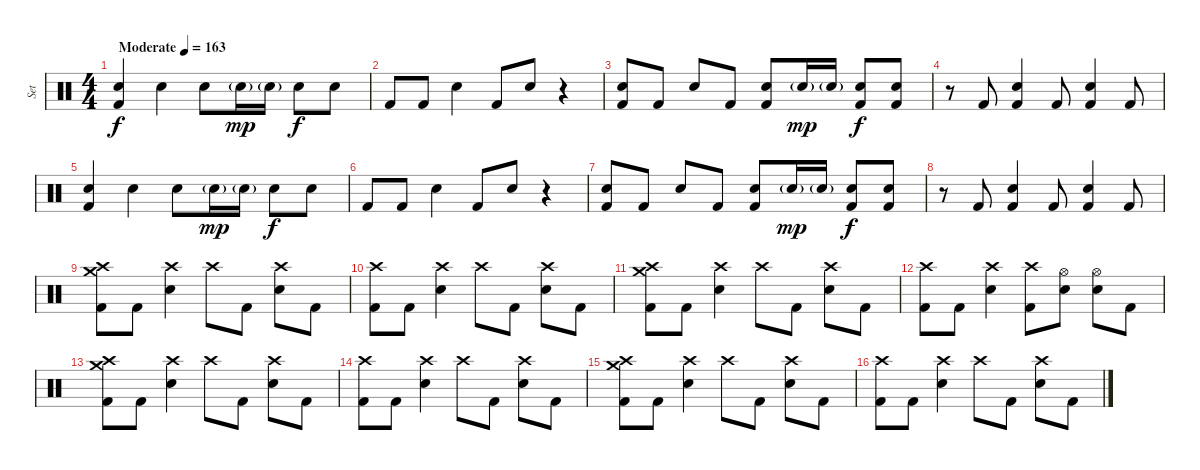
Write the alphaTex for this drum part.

\track ("Set" "Set") {instrument percussion}
\staff {score}
\articulation defaults
\ts (4 4)
\tempo (163 "Moderate")
\clef neutral
\ks c
("Electric Snare (hit)" "Kick (hit) 2").4{dy f} "Electric Snare (hit)".4 "Electric Snare (hit)".8 "Electric Snare (hit)"{g}.16{dy mp} "Electric Snare (hit)"{g}.16 "Electric Snare (hit)".8{dy f} "Electric Snare (hit)".8 |
"Kick (hit) 2".8 "Kick (hit) 2".8 "Electric Snare (hit)".4 "Kick (hit) 2".8 "Electric Snare (hit)".8 r.4 |
("Electric Snare (hit)" "Kick (hit) 2").8 "Kick (hit) 2".8 "Electric Snare (hit)".8 "Kick (hit) 2".8 ("Electric Snare (hit)" "Kick (hit) 2").8 "Electric Snare (hit)"{g}.16{dy mp} "Electric Snare (hit)"{g}.16 ("Electric Snare (hit)" "Kick (hit) 2").8{dy f} ("Electric Snare (hit)" "Kick (hit) 2").8 |
r.8 "Kick (hit) 2".8 ("Electric Snare (hit)" "Kick (hit) 2").4 "Kick (hit) 2".8 ("Electric Snare (hit)" "Kick (hit) 2").4 "Kick (hit) 2".8 |
("Electric Snare (hit)" "Kick (hit) 2").4 "Electric Snare (hit)".4 "Electric Snare (hit)".8 "Electric Snare (hit)"{g}.16{dy mp} "Electric Snare (hit)"{g}.16 "Electric Snare (hit)".8{dy f} "Electric Snare (hit)".8 |
"Kick (hit) 2".8 "Kick (hit) 2".8 "Electric Snare (hit)".4 "Kick (hit) 2".8 "Electric Snare (hit)".8 r.4 |
("Electric Snare (hit)" "Kick (hit) 2").8 "Kick (hit) 2".8 "Electric Snare (hit)".8 "Kick (hit) 2".8 ("Electric Snare (hit)" "Kick (hit) 2").8 "Electric Snare (hit)"{g}.16{dy mp} "Electric Snare (hit)"{g}.16 ("Electric Snare (hit)" "Kick (hit) 2").8{dy f} ("Electric Snare (hit)" "Kick (hit) 2").8 |
r.8 "Kick (hit) 2".8 ("Electric Snare (hit)" "Kick (hit) 2").4 "Kick (hit) 2".8 ("Electric Snare (hit)" "Kick (hit) 2").4 "Kick (hit) 2".8 |
("Crash high (hit)" "Crash medium (hit)" "Kick (hit) 2").8{volume 16} "Kick (hit) 2".8 ("Crash high (hit)" "Snare (hit) 2").4 "Crash high (hit)".8 "Kick (hit) 2".8 ("Crash high (hit)" "Snare (hit) 2").8 "Kick (hit) 2".8 |
("Crash high (hit)" "Kick (hit) 2").8 "Kick (hit) 2".8 ("Crash high (hit)" "Snare (hit) 2").4 "Crash high (hit)".8 "Kick (hit) 2".8 ("Crash high (hit)" "Snare (hit) 2").8 "Kick (hit) 2".8 |
("Crash high (hit)" "Crash medium (hit)" "Kick (hit) 2").8 "Kick (hit) 2".8 ("Crash high (hit)" "Snare (hit) 2").4 "Crash high (hit)".8 "Kick (hit) 2".8 ("Crash high (hit)" "Snare (hit) 2").8 "Kick (hit) 2".8 |
("Crash high (hit)" "Kick (hit) 2").8 "Kick (hit) 2".8 ("Crash high (hit)" "Snare (hit) 2").4 ("Crash high (hit)" "Kick (hit) 2").8 ("Hi-Hat (open)" "Snare (hit) 2").8 ("Hi-Hat (open)" "Snare (hit) 2").8 "Kick (hit) 2".8 |
("Crash high (hit)" "Crash medium (hit)" "Kick (hit) 2").8 "Kick (hit) 2".8 ("Crash high (hit)" "Snare (hit) 2").4 "Crash high (hit)".8 "Kick (hit) 2".8 ("Crash high (hit)" "Snare (hit) 2").8 "Kick (hit) 2".8 |
("Crash high (hit)" "Kick (hit) 2").8 "Kick (hit) 2".8 ("Crash high (hit)" "Snare (hit) 2").4 "Crash high (hit)".8 "Kick (hit) 2".8 ("Crash high (hit)" "Snare (hit) 2").8 "Kick (hit) 2".8 |
("Crash high (hit)" "Crash medium (hit)" "Kick (hit) 2").8 "Kick (hit) 2".8 ("Crash high (hit)" "Snare (hit) 2").4 "Crash high (hit)".8 "Kick (hit) 2".8 ("Crash high (hit)" "Snare (hit) 2").8 "Kick (hit) 2".8 |
("Crash high (hit)" "Kick (hit) 2").8 "Kick (hit) 2".8 ("Crash high (hit)" "Snare (hit) 2").4 "Crash high (hit)".8 "Kick (hit) 2".8 ("Crash high (hit)" "Snare (hit) 2").8 "Kick (hit) 2".8
